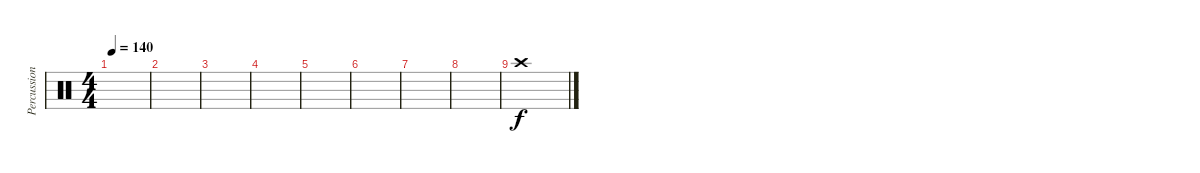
\track ("Percussion" "Percussion") {instrument percussion}
\staff {score}
\articulation defaults
\ts (4 4)
\tempo 140
\clef neutral
\ks c
|
|
|
|
|
|
|
|
"Crash high (hit)".1
